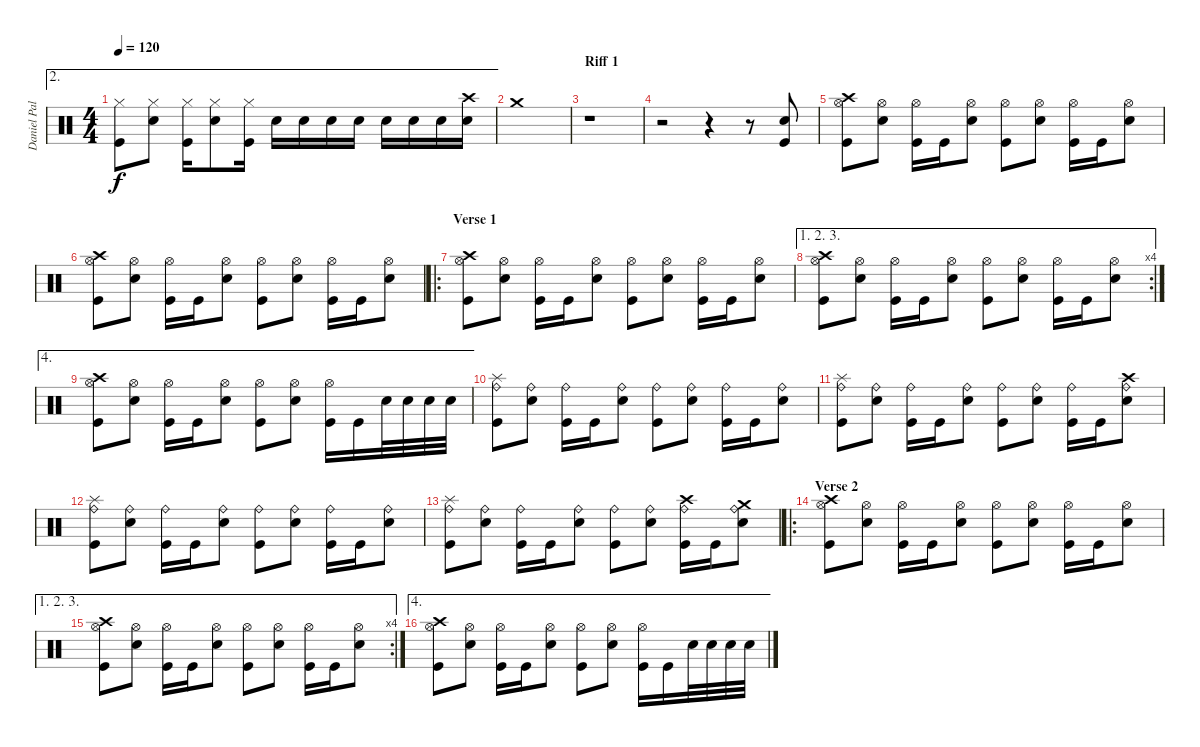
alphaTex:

\track ("Daniel Pal" "Daniel Pal") {instrument percussion}
\staff {score}
\articulation defaults
\ae 2
\ts (4 4)
\tempo 120
\clef neutral
\ks c
("Hi-Hat (closed)" "Kick (hit)").8{dy f} ("Hi-Hat (closed)" "Electric Snare (hit)").8 ("Hi-Hat (closed)" "Kick (hit)").16 ("Hi-Hat (closed)" "Electric Snare (hit)").8 ("Hi-Hat (closed)" "Kick (hit)").16 "Electric Snare (hit)".16 "Electric Snare (hit)".16 "Electric Snare (hit)".16 "Electric Snare (hit)".16 "Electric Snare (hit)".16 "Electric Snare (hit)".16 "Electric Snare (hit)".16 ("Crash high (hit)" "Electric Snare (hit)").16 |
"Crash medium (hit)".1 |
\section ("" "Riff 1")
r.1 |
r.2 r.4 r.8 ("Electric Snare (hit)" "Kick (hit)").8 |
("Crash high (hit)" "Hi-Hat (open)" "Kick (hit)").8 ("Hi-Hat (open)" "Electric Snare (hit)").8 ("Hi-Hat (open)" "Kick (hit)").16 "Kick (hit)".16 ("Hi-Hat (open)" "Electric Snare (hit)").8 ("Hi-Hat (open)" "Kick (hit)").8 ("Hi-Hat (open)" "Electric Snare (hit)").8 ("Hi-Hat (open)" "Kick (hit)").16 "Kick (hit)".16 ("Hi-Hat (open)" "Electric Snare (hit)").8 |
("Crash high (hit)" "Hi-Hat (open)" "Kick (hit)").8 ("Hi-Hat (open)" "Electric Snare (hit)").8 ("Hi-Hat (open)" "Kick (hit)").16 "Kick (hit)".16 ("Hi-Hat (open)" "Electric Snare (hit)").8 ("Hi-Hat (open)" "Kick (hit)").8 ("Hi-Hat (open)" "Electric Snare (hit)").8 ("Hi-Hat (open)" "Kick (hit)").16 "Kick (hit)".16 ("Hi-Hat (open)" "Electric Snare (hit)").8 |
\ro
\section ("" "Verse 1")
("Crash high (hit)" "Hi-Hat (open)" "Kick (hit)").8 ("Hi-Hat (open)" "Electric Snare (hit)").8 ("Hi-Hat (open)" "Kick (hit)").16 "Kick (hit)".16 ("Hi-Hat (open)" "Electric Snare (hit)").8 ("Hi-Hat (open)" "Kick (hit)").8 ("Hi-Hat (open)" "Electric Snare (hit)").8 ("Hi-Hat (open)" "Kick (hit)").16 "Kick (hit)".16 ("Hi-Hat (open)" "Electric Snare (hit)").8 |
\ae (1 2 3)
\rc 4
("Crash high (hit)" "Hi-Hat (open)" "Kick (hit)").8 ("Hi-Hat (open)" "Electric Snare (hit)").8 ("Hi-Hat (open)" "Kick (hit)").16 "Kick (hit)".16 ("Hi-Hat (open)" "Electric Snare (hit)").8 ("Hi-Hat (open)" "Kick (hit)").8 ("Hi-Hat (open)" "Electric Snare (hit)").8 ("Hi-Hat (open)" "Kick (hit)").16 "Kick (hit)".16 ("Hi-Hat (open)" "Electric Snare (hit)").8 |
\ae 4
("Crash high (hit)" "Hi-Hat (open)" "Kick (hit)").8 ("Hi-Hat (open)" "Electric Snare (hit)").8 ("Hi-Hat (open)" "Kick (hit)").16 "Kick (hit)".16 ("Hi-Hat (open)" "Electric Snare (hit)").8 ("Hi-Hat (open)" "Kick (hit)").8 ("Hi-Hat (open)" "Electric Snare (hit)").8 ("Hi-Hat (open)" "Kick (hit)").16 "Kick (hit)".16 "Electric Snare (hit)".32 "Electric Snare (hit)".32 "Electric Snare (hit)".32 "Electric Snare (hit)".32 |
("Splash (hit)" "Ride (bell)" "Kick (hit)").8 ("Ride (bell)" "Electric Snare (hit)").8 ("Ride (bell)" "Kick (hit)").16 "Kick (hit)".16 ("Ride (bell)" "Electric Snare (hit)").8 ("Ride (bell)" "Kick (hit)").8 ("Ride (bell)" "Electric Snare (hit)").8 ("Ride (bell)" "Kick (hit)").16 "Kick (hit)".16 ("Ride (bell)" "Electric Snare (hit)").8 |
("Splash (hit)" "Ride (bell)" "Kick (hit)").8 ("Ride (bell)" "Electric Snare (hit)").8 ("Ride (bell)" "Kick (hit)").16 "Kick (hit)".16 ("Ride (bell)" "Electric Snare (hit)").8 ("Ride (bell)" "Kick (hit)").8 ("Ride (bell)" "Electric Snare (hit)").8 ("Ride (bell)" "Kick (hit)").16 "Kick (hit)".16 ("Crash high (hit)" "Ride (bell)" "Electric Snare (hit)").8 |
("Splash (hit)" "Ride (bell)" "Kick (hit)").8 ("Ride (bell)" "Electric Snare (hit)").8 ("Ride (bell)" "Kick (hit)").16 "Kick (hit)".16 ("Ride (bell)" "Electric Snare (hit)").8 ("Ride (bell)" "Kick (hit)").8 ("Ride (bell)" "Electric Snare (hit)").8 ("Ride (bell)" "Kick (hit)").16 "Kick (hit)".16 ("Ride (bell)" "Electric Snare (hit)").8 |
("Splash (hit)" "Ride (bell)" "Kick (hit)").8 ("Ride (bell)" "Electric Snare (hit)").8 ("Ride (bell)" "Kick (hit)").16 "Kick (hit)".16 ("Ride (bell)" "Electric Snare (hit)").8 ("Ride (bell)" "Kick (hit)").8 ("Ride (bell)" "Electric Snare (hit)").8 ("Crash high (hit)" "Ride (bell)" "Kick (hit)").16 "Kick (hit)".16 ("Crash medium (hit)" "Ride (bell)" "Electric Snare (hit)").8 |
\ro
\section ("" "Verse 2")
("Crash high (hit)" "Hi-Hat (open)" "Kick (hit)").8 ("Hi-Hat (open)" "Electric Snare (hit)").8 ("Hi-Hat (open)" "Kick (hit)").16 "Kick (hit)".16 ("Hi-Hat (open)" "Electric Snare (hit)").8 ("Hi-Hat (open)" "Kick (hit)").8 ("Hi-Hat (open)" "Electric Snare (hit)").8 ("Hi-Hat (open)" "Kick (hit)").16 "Kick (hit)".16 ("Hi-Hat (open)" "Electric Snare (hit)").8 |
\ae (1 2 3)
\rc 4
("Crash high (hit)" "Hi-Hat (open)" "Kick (hit)").8 ("Hi-Hat (open)" "Electric Snare (hit)").8 ("Hi-Hat (open)" "Kick (hit)").16 "Kick (hit)".16 ("Hi-Hat (open)" "Electric Snare (hit)").8 ("Hi-Hat (open)" "Kick (hit)").8 ("Hi-Hat (open)" "Electric Snare (hit)").8 ("Hi-Hat (open)" "Kick (hit)").16 "Kick (hit)".16 ("Hi-Hat (open)" "Electric Snare (hit)").8 |
\ae 4
("Crash high (hit)" "Hi-Hat (open)" "Kick (hit)").8 ("Hi-Hat (open)" "Electric Snare (hit)").8 ("Hi-Hat (open)" "Kick (hit)").16 "Kick (hit)".16 ("Hi-Hat (open)" "Electric Snare (hit)").8 ("Hi-Hat (open)" "Kick (hit)").8 ("Hi-Hat (open)" "Electric Snare (hit)").8 ("Hi-Hat (open)" "Kick (hit)").16 "Kick (hit)".16 "Electric Snare (hit)".32 "Electric Snare (hit)".32 "Electric Snare (hit)".32 "Electric Snare (hit)".32
